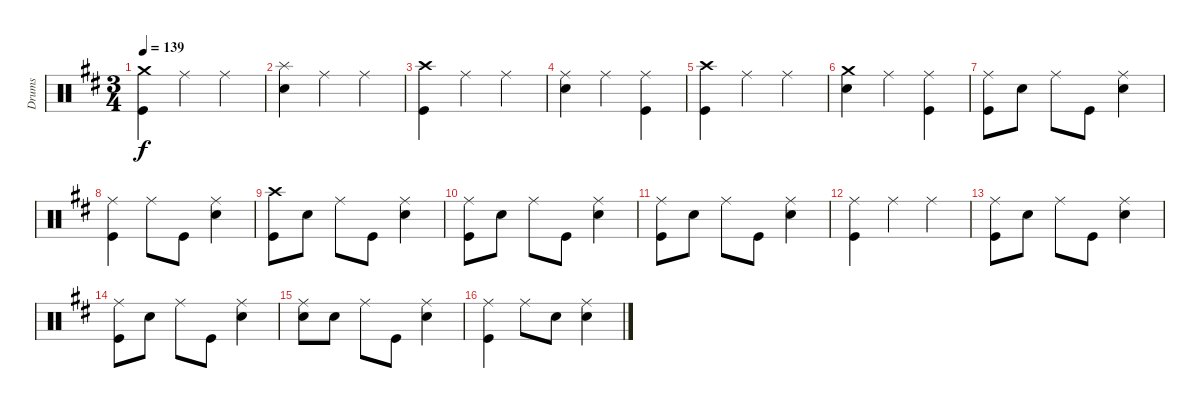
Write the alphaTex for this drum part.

\track ("Drums" "Drums") {instrument percussion}
\staff {score}
\articulation defaults
\ts (3 4)
\tempo 139
\clef neutral
\ks d
("Crash medium (hit)" "Kick (hit)").4{dy f} "Ride (middle)".4 "Ride (middle)".4 |
("Splash (hit)" "Snare (hit) 2").4 "Ride (middle)".4 "Ride (middle)".4 |
("Crash high (hit)" "Kick (hit)").4 "Ride (middle)".4 "Ride (middle)".4 |
("Ride (middle)" "Snare (hit) 2").4 "Ride (middle)".4 ("Ride (middle)" "Kick (hit)").4 |
("Crash high (hit)" "Kick (hit)").4 "Ride (middle)".4 "Ride (middle)".4 |
("Crash medium (hit)" "Snare (hit) 2").4 "Ride (middle)".4 ("Ride (middle)" "Kick (hit)").4 |
("Ride (middle)" "Kick (hit)").8 "Snare (hit) 2".8 "Ride (middle)".8 "Kick (hit)".8 ("Ride (middle)" "Snare (hit) 2").4 |
("Ride (middle)" "Kick (hit)").4 "Ride (middle)".8 "Kick (hit)".8 ("Ride (middle)" "Snare (hit) 2").4 |
("Crash high (hit)" "Kick (hit)").8 "Snare (hit) 2".8 "Ride (middle)".8 "Kick (hit)".8 ("Ride (middle)" "Snare (hit) 2").4 |
("Ride (middle)" "Kick (hit)").8 "Snare (hit) 2".8 "Ride (middle)".8 "Kick (hit)".8 ("Ride (middle)" "Snare (hit) 2").4 |
("Ride (middle)" "Kick (hit)").8 "Snare (hit) 2".8 "Ride (middle)".8 "Kick (hit)".8 ("Ride (middle)" "Snare (hit) 2").4 |
("Ride (middle)" "Kick (hit)").4 "Ride (middle)".4 "Ride (middle)".4 |
("Ride (middle)" "Kick (hit)").8 "Snare (hit) 2".8 "Ride (middle)".8 "Kick (hit)".8 ("Ride (middle)" "Snare (hit) 2").4 |
("Ride (middle)" "Kick (hit)").8 "Snare (hit) 2".8 "Ride (middle)".8 "Kick (hit)".8 ("Ride (middle)" "Snare (hit) 2").4 |
("Ride (middle)" "Snare (hit) 2").8 "Snare (hit) 2".8 "Ride (middle)".8 "Kick (hit)".8 ("Ride (middle)" "Snare (hit) 2").4 |
("Ride (middle)" "Kick (hit)").4 "Ride (middle)".8 "Snare (hit) 2".8 ("Ride (middle)" "Snare (hit) 2").4
